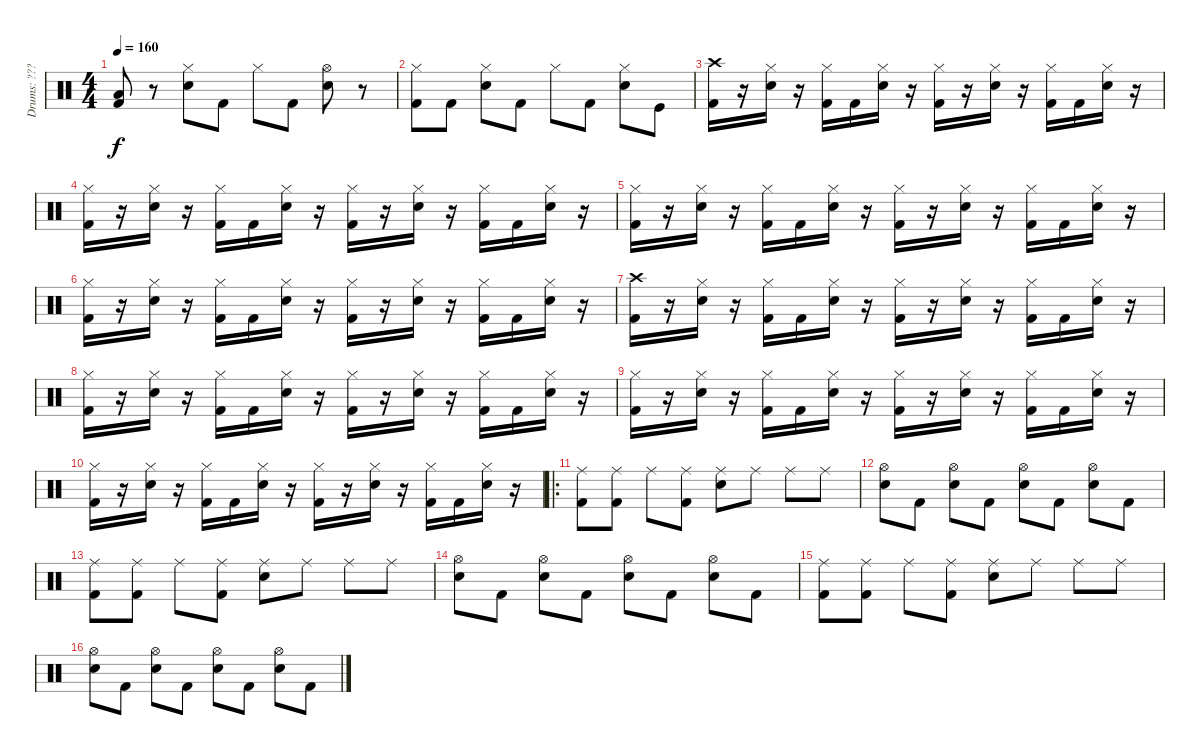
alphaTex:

\track ("Drums: ???" "Drums: ???") {instrument percussion}
\staff {score}
\articulation defaults
\ts (4 4)
\tempo 160
\clef neutral
\ks c
("Low Floor Tom (hit)" "Kick (hit) 2").8{dy f} r.8 ("Hi-Hat (closed)" "Snare (hit) 2").8 "Kick (hit) 2".8 "Hi-Hat (closed)".8 "Kick (hit) 2".8 ("Hi-Hat (open)" "Snare (hit) 2").8 r.8 |
("Hi-Hat (closed)" "Kick (hit) 2").8 "Kick (hit) 2".8 ("Hi-Hat (closed)" "Snare (hit) 2").8 "Kick (hit) 2".8 "Hi-Hat (closed)".8 "Kick (hit) 2".8 ("Hi-Hat (closed)" "Snare (hit) 2").8 "Kick (hit)".8 |
("Kick (hit) 2" "Crash high (hit)").16 r.16 ("Snare (hit) 2" "Hi-Hat (closed)").16 r.16 ("Kick (hit) 2" "Hi-Hat (closed)").16 "Kick (hit) 2".16 ("Snare (hit) 2" "Hi-Hat (closed)").16 r.16 ("Kick (hit) 2" "Hi-Hat (closed)").16 r.16 ("Snare (hit) 2" "Hi-Hat (closed)").16 r.16 ("Kick (hit) 2" "Hi-Hat (closed)").16 "Kick (hit) 2".16 ("Snare (hit) 2" "Hi-Hat (closed)").16 r.16 |
("Kick (hit) 2" "Hi-Hat (closed)").16 r.16 ("Snare (hit) 2" "Hi-Hat (closed)").16 r.16 ("Kick (hit) 2" "Hi-Hat (closed)").16 "Kick (hit) 2".16 ("Snare (hit) 2" "Hi-Hat (closed)").16 r.16 ("Kick (hit) 2" "Hi-Hat (closed)").16 r.16 ("Snare (hit) 2" "Hi-Hat (closed)").16 r.16 ("Kick (hit) 2" "Hi-Hat (closed)").16 "Kick (hit) 2".16 ("Snare (hit) 2" "Hi-Hat (closed)").16 r.16 |
("Kick (hit) 2" "Hi-Hat (closed)").16 r.16 ("Snare (hit) 2" "Hi-Hat (closed)").16 r.16 ("Kick (hit) 2" "Hi-Hat (closed)").16 "Kick (hit) 2".16 ("Snare (hit) 2" "Hi-Hat (closed)").16 r.16 ("Kick (hit) 2" "Hi-Hat (closed)").16 r.16 ("Snare (hit) 2" "Hi-Hat (closed)").16 r.16 ("Kick (hit) 2" "Hi-Hat (closed)").16 "Kick (hit) 2".16 ("Snare (hit) 2" "Hi-Hat (closed)").16 r.16 |
("Kick (hit) 2" "Hi-Hat (closed)").16 r.16 ("Snare (hit) 2" "Hi-Hat (closed)").16 r.16 ("Kick (hit) 2" "Hi-Hat (closed)").16 "Kick (hit) 2".16 ("Snare (hit) 2" "Hi-Hat (closed)").16 r.16 ("Kick (hit) 2" "Hi-Hat (closed)").16 r.16 ("Snare (hit) 2" "Hi-Hat (closed)").16 r.16 ("Kick (hit) 2" "Hi-Hat (closed)").16 "Kick (hit) 2".16 ("Snare (hit) 2" "Hi-Hat (closed)").16 r.16 |
("Kick (hit) 2" "Crash high (hit)").16 r.16 ("Snare (hit) 2" "Hi-Hat (closed)").16 r.16 ("Kick (hit) 2" "Hi-Hat (closed)").16 "Kick (hit) 2".16 ("Snare (hit) 2" "Hi-Hat (closed)").16 r.16 ("Kick (hit) 2" "Hi-Hat (closed)").16 r.16 ("Snare (hit) 2" "Hi-Hat (closed)").16 r.16 ("Kick (hit) 2" "Hi-Hat (closed)").16 "Kick (hit) 2".16 ("Snare (hit) 2" "Hi-Hat (closed)").16 r.16 |
("Kick (hit) 2" "Hi-Hat (closed)").16 r.16 ("Snare (hit) 2" "Hi-Hat (closed)").16 r.16 ("Kick (hit) 2" "Hi-Hat (closed)").16 "Kick (hit) 2".16 ("Snare (hit) 2" "Hi-Hat (closed)").16 r.16 ("Kick (hit) 2" "Hi-Hat (closed)").16 r.16 ("Snare (hit) 2" "Hi-Hat (closed)").16 r.16 ("Kick (hit) 2" "Hi-Hat (closed)").16 "Kick (hit) 2".16 ("Snare (hit) 2" "Hi-Hat (closed)").16 r.16 |
("Kick (hit) 2" "Hi-Hat (closed)").16 r.16 ("Snare (hit) 2" "Hi-Hat (closed)").16 r.16 ("Kick (hit) 2" "Hi-Hat (closed)").16 "Kick (hit) 2".16 ("Snare (hit) 2" "Hi-Hat (closed)").16 r.16 ("Kick (hit) 2" "Hi-Hat (closed)").16 r.16 ("Snare (hit) 2" "Hi-Hat (closed)").16 r.16 ("Kick (hit) 2" "Hi-Hat (closed)").16 "Kick (hit) 2".16 ("Snare (hit) 2" "Hi-Hat (closed)").16 r.16 |
("Kick (hit) 2" "Hi-Hat (closed)").16 r.16 ("Snare (hit) 2" "Hi-Hat (closed)").16 r.16 ("Kick (hit) 2" "Hi-Hat (closed)").16 "Kick (hit) 2".16 ("Snare (hit) 2" "Hi-Hat (closed)").16 r.16 ("Kick (hit) 2" "Hi-Hat (closed)").16 r.16 ("Snare (hit) 2" "Hi-Hat (closed)").16 r.16 ("Kick (hit) 2" "Hi-Hat (closed)").16 "Kick (hit) 2".16 ("Snare (hit) 2" "Hi-Hat (closed)").16 r.16 |
\ro
("Ride (middle)" "Kick (hit) 2").8 ("Ride (middle)" "Kick (hit) 2").8 "Ride (middle)".8 ("Ride (middle)" "Kick (hit) 2").8 ("Ride (middle)" "Snare (hit) 2").8 "Ride (middle)".8 "Ride (middle)".8 "Ride (middle)".8 |
("Snare (hit) 2" "Hi-Hat (open)").8 "Kick (hit) 2".8 ("Snare (hit) 2" "Hi-Hat (open)").8 "Kick (hit) 2".8 ("Snare (hit) 2" "Hi-Hat (open)").8 "Kick (hit) 2".8 ("Snare (hit) 2" "Hi-Hat (open)").8 "Kick (hit) 2".8 |
("Ride (middle)" "Kick (hit) 2").8 ("Ride (middle)" "Kick (hit) 2").8 "Ride (middle)".8 ("Ride (middle)" "Kick (hit) 2").8 ("Ride (middle)" "Snare (hit) 2").8 "Ride (middle)".8 "Ride (middle)".8 "Ride (middle)".8 |
("Snare (hit) 2" "Hi-Hat (open)").8 "Kick (hit) 2".8 ("Snare (hit) 2" "Hi-Hat (open)").8 "Kick (hit) 2".8 ("Snare (hit) 2" "Hi-Hat (open)").8 "Kick (hit) 2".8 ("Snare (hit) 2" "Hi-Hat (open)").8 "Kick (hit) 2".8 |
("Ride (middle)" "Kick (hit) 2").8 ("Ride (middle)" "Kick (hit) 2").8 "Ride (middle)".8 ("Ride (middle)" "Kick (hit) 2").8 ("Ride (middle)" "Snare (hit) 2").8 "Ride (middle)".8 "Ride (middle)".8 "Ride (middle)".8 |
("Snare (hit) 2" "Hi-Hat (open)").8 "Kick (hit) 2".8 ("Snare (hit) 2" "Hi-Hat (open)").8 "Kick (hit) 2".8 ("Snare (hit) 2" "Hi-Hat (open)").8 "Kick (hit) 2".8 ("Snare (hit) 2" "Hi-Hat (open)").8 "Kick (hit) 2".8
